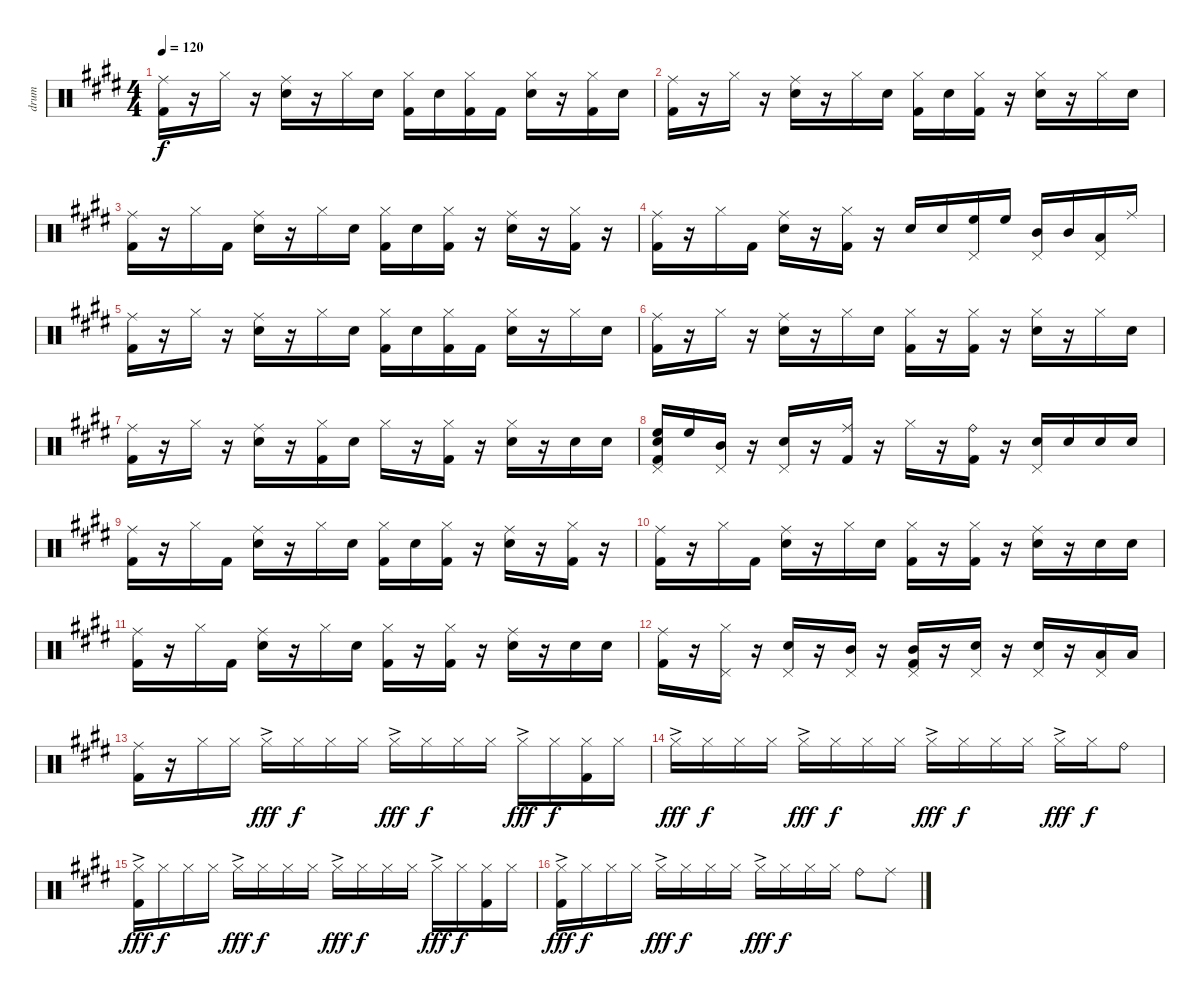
\track ("drum" "drum") {instrument percussion}
\staff {score}
\articulation defaults
\ts (4 4)
\tempo 120
\clef neutral
\ks e
("Kick (hit) 2" "Ride (middle)").16{dy f} r.16 "Hi-Hat (closed)".16 r.16 ("Snare (hit) 2" "Ride (middle)").16 r.16 "Hi-Hat (closed)".16 "Snare (hit) 2".16 ("Kick (hit) 2" "Hi-Hat (closed)").16 "Snare (hit) 2".16 ("Kick (hit) 2" "Hi-Hat (closed)").16 "Kick (hit) 2".16 ("Snare (hit) 2" "Hi-Hat (closed)").16 r.16 ("Kick (hit) 2" "Hi-Hat (closed)").16 "Snare (hit) 2".16 |
("Kick (hit) 2" "Ride (middle)").16 r.16 "Hi-Hat (closed)".16 r.16 ("Snare (hit) 2" "Ride (middle)").16 r.16 "Hi-Hat (closed)".16 "Snare (hit) 2".16 ("Kick (hit) 2" "Hi-Hat (closed)").16 "Snare (hit) 2".16 ("Kick (hit) 2" "Hi-Hat (closed)").16 r.16 ("Snare (hit) 2" "Hi-Hat (closed)").16 r.16 "Hi-Hat (closed)".16 "Snare (hit) 2".16 |
("Kick (hit) 2" "Ride (middle)").16 r.16 "Hi-Hat (closed)".16 "Kick (hit) 2".16 ("Snare (hit) 2" "Ride (middle)").16 r.16 "Hi-Hat (closed)".16 "Snare (hit) 2".16 ("Kick (hit) 2" "Hi-Hat (closed)").16 "Snare (hit) 2".16 ("Kick (hit) 2" "Hi-Hat (closed)").16 r.16 ("Snare (hit) 2" "Ride (middle)").16 r.16 ("Kick (hit) 2" "Hi-Hat (closed)").16 r.16 |
("Kick (hit) 2" "Ride (middle)").16 r.16 "Hi-Hat (closed)".16 "Kick (hit) 2".16 ("Snare (hit) 2" "Ride (middle)").16 r.16 ("Kick (hit) 2" "Hi-Hat (closed)").16 r.16 "Snare (hit) 2".16 "Snare (hit) 2".16 ("Pedal Hi-Hat (hit)" "High Floor Tom (hit)").16 "High Floor Tom (hit)".16 ("Pedal Hi-Hat (hit)" "Mid Tom (hit)").16 "Mid Tom (hit)".16 ("Pedal Hi-Hat (hit)" "Low Tom (hit)").16 "Ride (middle)".16 |
("Kick (hit) 2" "Ride (middle)").16 r.16 "Hi-Hat (closed)".16 r.16 ("Snare (hit) 2" "Ride (middle)").16 r.16 "Hi-Hat (closed)".16 "Snare (hit) 2".16 ("Kick (hit) 2" "Hi-Hat (closed)").16 "Snare (hit) 2".16 ("Kick (hit) 2" "Hi-Hat (closed)").16 "Kick (hit) 2".16 ("Snare (hit) 2" "Hi-Hat (closed)").16 r.16 "Hi-Hat (closed)".16 "Snare (hit) 2".16 |
("Kick (hit) 2" "Ride (middle)").16 r.16 "Hi-Hat (closed)".16 r.16 ("Snare (hit) 2" "Ride (middle)").16 r.16 "Hi-Hat (closed)".16 "Snare (hit) 2".16 ("Kick (hit) 2" "Hi-Hat (closed)").16 r.16 ("Kick (hit) 2" "Hi-Hat (closed)").16 r.16 ("Snare (hit) 2" "Hi-Hat (closed)").16 r.16 "Hi-Hat (closed)".16 "Snare (hit) 2".16 |
("Kick (hit) 2" "Ride (middle)").16 r.16 "Hi-Hat (closed)".16 r.16 ("Snare (hit) 2" "Ride (middle)").16 r.16 ("Kick (hit) 2" "Hi-Hat (closed)").16 "Snare (hit) 2".16 "Hi-Hat (closed)".16 r.16 ("Kick (hit) 2" "Hi-Hat (closed)").16 r.16 ("Snare (hit) 2" "Hi-Hat (closed)").16 r.16 "Snare (hit) 2".16 "Snare (hit) 2".16 |
("Pedal Hi-Hat (hit)" "High Floor Tom (hit)" "Snare (hit) 2" "Kick (hit) 2").16 "High Floor Tom (hit)".16 ("Pedal Hi-Hat (hit)" "Mid Tom (hit)").16 r.16 ("Snare (hit) 2" "Pedal Hi-Hat (hit)").16 r.16 ("Ride (middle)" "Kick (hit) 2").16 r.16 "Hi-Hat (closed)".16 r.16 ("Kick (hit) 2" "Ride (bell)").16 r.16 ("Pedal Hi-Hat (hit)" "Snare (hit) 2").16 "Snare (hit) 2".16 "Snare (hit) 2".16 "Snare (hit) 2".16 |
("Kick (hit) 2" "Ride (middle)").16 r.16 "Hi-Hat (closed)".16 "Kick (hit) 2".16 ("Snare (hit) 2" "Ride (middle)").16 r.16 "Hi-Hat (closed)".16 "Snare (hit) 2".16 ("Kick (hit) 2" "Hi-Hat (closed)").16 "Snare (hit) 2".16 ("Kick (hit) 2" "Hi-Hat (closed)").16 r.16 ("Snare (hit) 2" "Ride (middle)").16 r.16 ("Kick (hit) 2" "Hi-Hat (closed)").16 r.16 |
("Kick (hit) 2" "Ride (middle)").16 r.16 "Hi-Hat (closed)".16 "Kick (hit) 2".16 ("Snare (hit) 2" "Ride (middle)").16 r.16 "Hi-Hat (closed)".16 "Snare (hit) 2".16 ("Kick (hit) 2" "Hi-Hat (closed)").16 r.16 ("Kick (hit) 2" "Hi-Hat (closed)").16 r.16 ("Snare (hit) 2" "Ride (middle)").16 r.16 "Snare (hit) 2".16 "Snare (hit) 2".16 |
("Kick (hit) 2" "Ride (middle)").16 r.16 "Hi-Hat (closed)".16 "Kick (hit) 2".16 ("Snare (hit) 2" "Ride (middle)").16 r.16 "Hi-Hat (closed)".16 "Snare (hit) 2".16 ("Kick (hit) 2" "Hi-Hat (closed)").16 r.16 ("Kick (hit) 2" "Hi-Hat (closed)").16 r.16 ("Snare (hit) 2" "Ride (middle)").16 r.16 "Snare (hit) 2".16 "Snare (hit) 2".16 |
("Kick (hit) 2" "Ride (middle)").16 r.16 ("Hi-Hat (closed)" "Pedal Hi-Hat (hit)").16 r.16 ("Snare (hit) 2" "Pedal Hi-Hat (hit)").16 r.16 ("Mid Tom (hit)" "Pedal Hi-Hat (hit)").16 r.16 ("Mid Tom (hit)" "Pedal Hi-Hat (hit)" "Kick (hit) 2").16 r.16 ("Pedal Hi-Hat (hit)" "Snare (hit) 2").16 r.16 ("Pedal Hi-Hat (hit)" "Snare (hit) 2").16 r.16 ("Pedal Hi-Hat (hit)" "Low Tom (hit)").16 "Low Tom (hit)".16 |
("Kick (hit) 2" "Ride (middle)").16 r.16 "Hi-Hat (closed)".16 "Hi-Hat (closed)".16 "Hi-Hat (closed)"{ac}.16{dy fff} "Hi-Hat (closed)".16{dy f} "Hi-Hat (closed)".16 "Hi-Hat (closed)".16 "Hi-Hat (closed)"{ac}.16{dy fff} "Hi-Hat (closed)".16{dy f} "Hi-Hat (closed)".16 "Hi-Hat (closed)".16 "Hi-Hat (closed)"{ac}.16{dy fff} "Hi-Hat (closed)".16{dy f} ("Kick (hit) 2" "Hi-Hat (closed)").16 "Hi-Hat (closed)".16 |
"Hi-Hat (closed)"{ac}.16{dy fff} "Hi-Hat (closed)".16{dy f} "Hi-Hat (closed)".16 "Hi-Hat (closed)".16 "Hi-Hat (closed)"{ac}.16{dy fff} "Hi-Hat (closed)".16{dy f} "Hi-Hat (closed)".16 "Hi-Hat (closed)".16 "Hi-Hat (closed)"{ac}.16{dy fff} "Hi-Hat (closed)".16{dy f} "Hi-Hat (closed)".16 "Hi-Hat (closed)".16 "Hi-Hat (closed)"{ac}.16{dy fff} "Hi-Hat (closed)".16{dy f} "Ride (bell)".8 |
("Kick (hit) 2" "Hi-Hat (closed)"{ac}).16{dy fff} "Hi-Hat (closed)".16{dy f} "Hi-Hat (closed)".16 "Hi-Hat (closed)".16 "Hi-Hat (closed)"{ac}.16{dy fff} "Hi-Hat (closed)".16{dy f} "Hi-Hat (closed)".16 "Hi-Hat (closed)".16 "Hi-Hat (closed)"{ac}.16{dy fff} "Hi-Hat (closed)".16{dy f} "Hi-Hat (closed)".16 "Hi-Hat (closed)".16 "Hi-Hat (closed)"{ac}.16{dy fff} "Hi-Hat (closed)".16{dy f} ("Kick (hit) 2" "Hi-Hat (closed)").16 "Hi-Hat (closed)".16 |
("Kick (hit) 2" "Hi-Hat (closed)"{ac}).16{dy fff} "Hi-Hat (closed)".16{dy f} "Hi-Hat (closed)".16 "Hi-Hat (closed)".16 "Hi-Hat (closed)"{ac}.16{dy fff} "Hi-Hat (closed)".16{dy f} "Hi-Hat (closed)".16 "Hi-Hat (closed)".16 "Hi-Hat (closed)"{ac}.16{dy fff} "Hi-Hat (closed)".16{dy f} "Hi-Hat (closed)".16 "Hi-Hat (closed)".16 "Ride (bell)".8 "Ride (middle)".8
